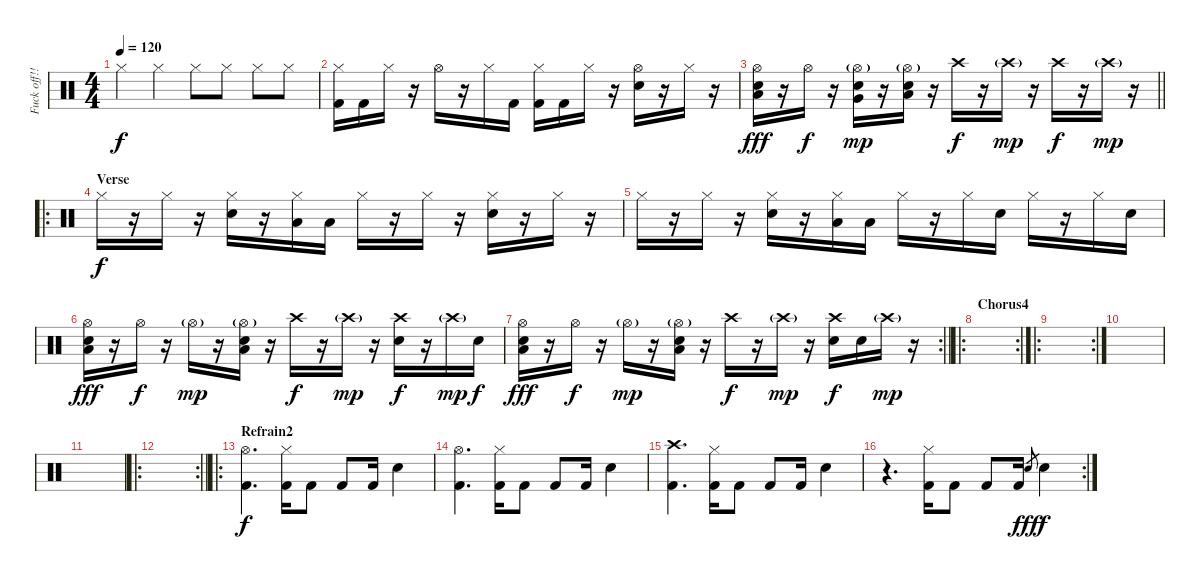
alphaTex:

\track ("Fuck off!!!     ..!." "Fuck off!!") {instrument percussion}
\staff {score}
\articulation defaults
\ts (4 4)
\tempo 120
\clef neutral
\ks c "Hi-Hat (closed)".4{dy f} "Hi-Hat (closed)".4 "Hi-Hat (closed)".8 "Hi-Hat (closed)".8 "Hi-Hat (closed)".8 "Hi-Hat (closed)".8
|
("Hi-Hat (closed)" "Kick (hit) 2").16 "Kick (hit) 2".16 "Hi-Hat (closed)".16 r.16 "Hi-Hat (open)".16 r.16 "Hi-Hat (closed)".16 "Kick (hit) 2".16 ("Hi-Hat (closed)" "Kick (hit) 2").16 "Kick (hit) 2".16 "Hi-Hat (closed)".16 r.16 ("Hi-Hat (open)" "Snare (hit) 2").16 r.16 "Hi-Hat (closed)".16 r.16 |
\barLineRight lightlight
("Hi-Hat (open)" "Low Floor Tom (hit)" "Snare (hit) 2").16{dy fff} r.16 "Hi-Hat (open)".16{dy f} r.16 ("Hi-Hat (open)"{g} "Very Low Tom (hit)" "Snare (hit) 2").16{dy mp} r.16 ("Hi-Hat (open)"{g} "Low Tom (hit)" "Snare (hit) 2").16 r.16 "Crash high (hit)".16{dy f} r.16 "Crash high (hit)"{g}.16{dy mp} r.16 "Crash high (hit)".16{dy f} r.16 "Crash high (hit)"{g}.16{dy mp} r.16 |
\ro
\section ("" "Verse")
"Hi-Hat (closed)".16{dy f} r.16 "Hi-Hat (closed)".16 r.16 ("Hi-Hat (closed)" "Snare (hit) 2").16 r.16 ("Hi-Hat (closed)" "Low Floor Tom (hit)").16 "Low Tom (hit)".16 "Hi-Hat (closed)".16 r.16 "Hi-Hat (closed)".16 r.16 ("Hi-Hat (closed)" "Snare (hit) 2").16 r.16 "Hi-Hat (closed)".16 r.16 |
"Hi-Hat (closed)".16 r.16 "Hi-Hat (closed)".16 r.16 ("Hi-Hat (closed)" "Snare (hit) 2").16 r.16 ("Hi-Hat (closed)" "Low Floor Tom (hit)").16 "Low Tom (hit)".16 "Hi-Hat (closed)".16 r.16 "Hi-Hat (closed)".16 "Snare (hit) 2".16 "Hi-Hat (closed)".16 r.16 "Hi-Hat (closed)".16 "Snare (hit) 2".16 |
("Hi-Hat (open)" "Low Floor Tom (hit)" "Snare (hit) 2").16{dy fff} r.16 "Hi-Hat (open)".16{dy f} r.16 "Hi-Hat (open)"{g}.16{dy mp} r.16 ("Hi-Hat (open)"{g} "Low Tom (hit)" "Snare (hit) 2").16 r.16 "Crash high (hit)".16{dy f} r.16 "Crash high (hit)"{g}.16{dy mp} r.16 ("Crash high (hit)" "Snare (hit) 2").16{dy f} r.16 "Crash high (hit)"{g}.16{dy mp} "Snare (hit) 2".16{dy f} |
\rc 2
\barLineRight lightlight
("Hi-Hat (open)" "Low Floor Tom (hit)" "Snare (hit) 2").16{dy fff} r.16 "Hi-Hat (open)".16{dy f} r.16 "Hi-Hat (open)"{g}.16{dy mp} r.16 ("Hi-Hat (open)"{g} "Low Tom (hit)" "Snare (hit) 2").16 r.16 "Crash high (hit)".16{dy f} r.16 "Crash high (hit)"{g}.16{dy mp} r.16 ("Crash high (hit)" "Snare (hit) 2").16{dy f} "Snare (hit) 2".16 "Crash high (hit)"{g}.16{dy mp} r.16 |
\ro
\rc 2
\section ("" "Chorus4")
|
\ro
\rc 2
|
|
|
\ro
\rc 2
\barLineRight lightlight
|
\ro
\section ("" "Refrain2")
("Kick (hit) 2" "Hi-Hat (open)").4{d dy f} ("Kick (hit) 2" "Hi-Hat (closed)").16 "Kick (hit) 2".8 "Kick (hit) 2".8 "Kick (hit) 2".16 "Snare (hit) 2".4 |
("Kick (hit) 2" "Hi-Hat (open)").4{d} ("Kick (hit) 2" "Hi-Hat (closed)").16 "Kick (hit) 2".8 "Kick (hit) 2".8 "Kick (hit) 2".16 "Snare (hit) 2".4 |
("Kick (hit) 2" "Crash high (hit)").4{d} ("Kick (hit) 2" "Hi-Hat (closed)").16 "Kick (hit) 2".8 "Kick (hit) 2".8 "Kick (hit) 2".16 "Snare (hit) 2".4 |
\rc 2
r.4{d} ("Kick (hit) 2" "Hi-Hat (closed)").16 "Kick (hit) 2".8 "Kick (hit) 2".8 "Kick (hit) 2".16 "Snare (hit) 2".8{gr dy fff} "Snare (hit) 2".4{dy f}
